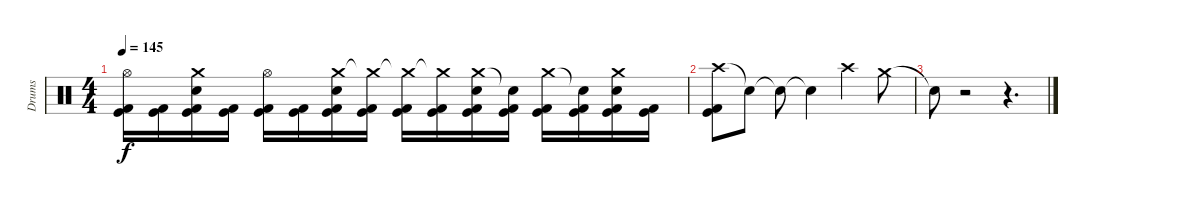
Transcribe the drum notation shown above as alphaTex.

\track ("Drums" "Drums") {instrument percussion}
\staff {score}
\articulation defaults
\ts (4 4)
\tempo 145
\clef neutral
\ks c
("Hi-Hat (open)" "Kick (hit) 2" "Kick (hit)").16{dy f} ("Kick (hit) 2" "Kick (hit)").16 ("Crash medium (hit)" "Snare (hit) 2" "Kick (hit) 2" "Kick (hit)").16 ("Kick (hit) 2" "Kick (hit)").16 ("Hi-Hat (open)" "Kick (hit) 2" "Kick (hit)").16 ("Kick (hit) 2" "Kick (hit)").16 ("Crash medium (hit)" "Snare (hit) 2" "Kick (hit) 2" "Kick (hit)").16 ("Crash medium (hit)"{t} "Kick (hit) 2" "Kick (hit)").16 ("Crash medium (hit)"{t} "Kick (hit) 2" "Kick (hit)").16 ("Crash medium (hit)"{t} "Kick (hit) 2" "Kick (hit)").16 ("Crash medium (hit)" "Snare (hit) 2" "Kick (hit) 2" "Kick (hit)").16 ("Snare (hit)"{t} "Kick (hit) 2" "Kick (hit)").16 ("Crash medium (hit)" "Kick (hit) 2" "Kick (hit)").16 ("Snare (hit)"{t} "Kick (hit) 2" "Kick (hit)").16 ("Crash medium (hit)" "Snare (hit) 2" "Kick (hit) 2" "Kick (hit)").16 ("Kick (hit) 2" "Kick (hit)").16 |
("Crash high (hit)" "Kick (hit) 2" "Kick (hit)").8 "Snare (hit)"{t}.8 "Snare (hit)"{t}.8 "Snare (hit)"{t}.4 "Crash high (hit)".4 "Crash medium (hit)".8 |
"Snare (hit)"{t}.8 r.2 r.4{d}
